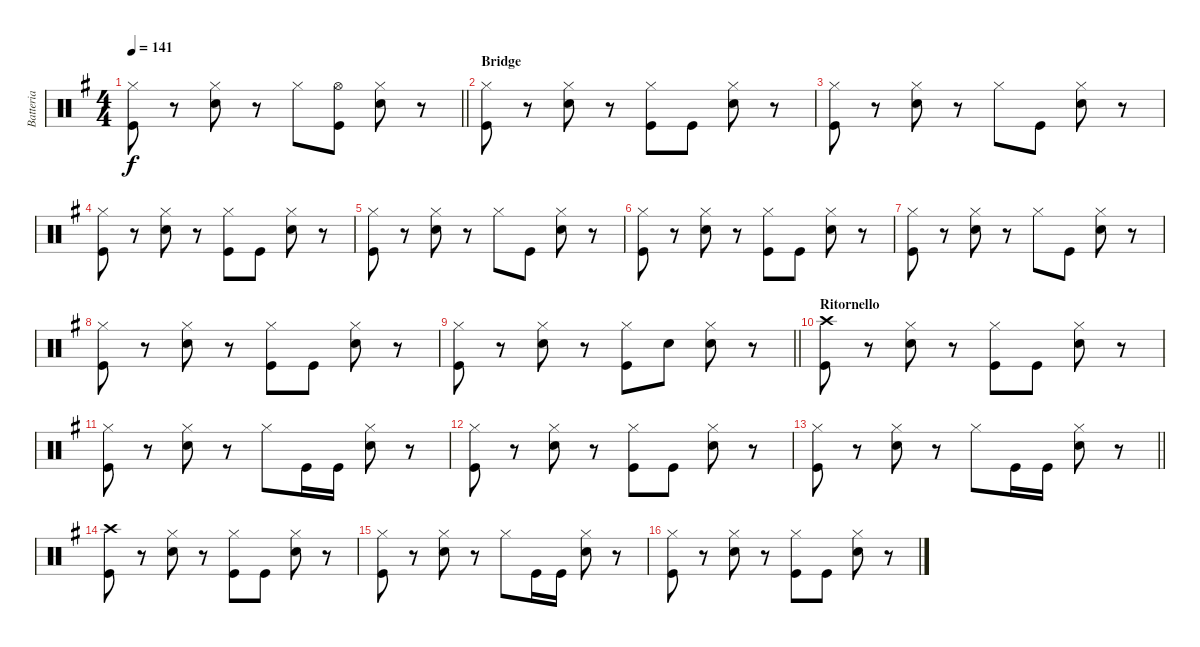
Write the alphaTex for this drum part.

\track ("Batteria" "Batteria") {instrument percussion}
\staff {score}
\articulation defaults
\ts (4 4)
\tempo 141
\clef neutral
\barLineRight lightlight
\ks eminor
("Hi-Hat (closed)" "Kick (hit)").8{dy f} r.8 ("Hi-Hat (closed)" "Electric Snare (hit)").8 r.8 "Hi-Hat (closed)".8 ("Hi-Hat (open)" "Kick (hit)").8 ("Hi-Hat (closed)" "Electric Snare (hit)").8 r.8 |
\section ("" "Bridge")
("Hi-Hat (closed)" "Kick (hit)").8 r.8 ("Hi-Hat (closed)" "Electric Snare (hit)").8 r.8 ("Hi-Hat (closed)" "Kick (hit)").8 "Kick (hit)".8 ("Hi-Hat (closed)" "Electric Snare (hit)").8 r.8 |
("Hi-Hat (closed)" "Kick (hit)").8 r.8 ("Hi-Hat (closed)" "Electric Snare (hit)").8 r.8 "Hi-Hat (closed)".8 "Kick (hit)".8 ("Hi-Hat (closed)" "Electric Snare (hit)").8 r.8 |
("Hi-Hat (closed)" "Kick (hit)").8 r.8 ("Hi-Hat (closed)" "Electric Snare (hit)").8 r.8 ("Hi-Hat (closed)" "Kick (hit)").8 "Kick (hit)".8 ("Hi-Hat (closed)" "Electric Snare (hit)").8 r.8 |
("Hi-Hat (closed)" "Kick (hit)").8 r.8 ("Hi-Hat (closed)" "Electric Snare (hit)").8 r.8 "Hi-Hat (closed)".8 "Kick (hit)".8 ("Hi-Hat (closed)" "Electric Snare (hit)").8 r.8 |
("Hi-Hat (closed)" "Kick (hit)").8 r.8 ("Hi-Hat (closed)" "Electric Snare (hit)").8 r.8 ("Hi-Hat (closed)" "Kick (hit)").8 "Kick (hit)".8 ("Hi-Hat (closed)" "Electric Snare (hit)").8 r.8 |
("Hi-Hat (closed)" "Kick (hit)").8 r.8 ("Hi-Hat (closed)" "Electric Snare (hit)").8 r.8 "Hi-Hat (closed)".8 "Kick (hit)".8 ("Hi-Hat (closed)" "Electric Snare (hit)").8 r.8 |
("Hi-Hat (closed)" "Kick (hit)").8 r.8 ("Hi-Hat (closed)" "Electric Snare (hit)").8 r.8 ("Hi-Hat (closed)" "Kick (hit)").8 "Kick (hit)".8 ("Hi-Hat (closed)" "Electric Snare (hit)").8 r.8 |
\barLineRight lightlight
("Hi-Hat (closed)" "Kick (hit)").8 r.8 ("Hi-Hat (closed)" "Electric Snare (hit)").8 r.8 ("Hi-Hat (closed)" "Kick (hit)").8 "Electric Snare (hit)".8 ("Hi-Hat (closed)" "Electric Snare (hit)").8 r.8 |
\section ("" "Ritornello")
("Crash high (hit)" "Kick (hit)").8 r.8 ("Hi-Hat (closed)" "Electric Snare (hit)").8 r.8 ("Hi-Hat (closed)" "Kick (hit)").8 "Kick (hit)".8 ("Hi-Hat (closed)" "Electric Snare (hit)").8 r.8 |
("Hi-Hat (closed)" "Kick (hit)").8 r.8 ("Hi-Hat (closed)" "Electric Snare (hit)").8 r.8 "Hi-Hat (closed)".8 "Kick (hit)".16 "Kick (hit)".16 ("Hi-Hat (closed)" "Electric Snare (hit)").8 r.8 |
("Hi-Hat (closed)" "Kick (hit)").8 r.8 ("Hi-Hat (closed)" "Electric Snare (hit)").8 r.8 ("Hi-Hat (closed)" "Kick (hit)").8 "Kick (hit)".8 ("Hi-Hat (closed)" "Electric Snare (hit)").8 r.8 |
\barLineRight lightlight
("Hi-Hat (closed)" "Kick (hit)").8 r.8 ("Hi-Hat (closed)" "Electric Snare (hit)").8 r.8 "Hi-Hat (closed)".8 "Kick (hit)".16 "Kick (hit)".16 ("Hi-Hat (closed)" "Electric Snare (hit)").8 r.8 |
("Crash high (hit)" "Kick (hit)").8 r.8 ("Hi-Hat (closed)" "Electric Snare (hit)").8 r.8 ("Hi-Hat (closed)" "Kick (hit)").8 "Kick (hit)".8 ("Hi-Hat (closed)" "Electric Snare (hit)").8 r.8 |
("Hi-Hat (closed)" "Kick (hit)").8 r.8 ("Hi-Hat (closed)" "Electric Snare (hit)").8 r.8 "Hi-Hat (closed)".8 "Kick (hit)".16 "Kick (hit)".16 ("Hi-Hat (closed)" "Electric Snare (hit)").8 r.8 |
("Hi-Hat (closed)" "Kick (hit)").8 r.8 ("Hi-Hat (closed)" "Electric Snare (hit)").8 r.8 ("Hi-Hat (closed)" "Kick (hit)").8 "Kick (hit)".8 ("Hi-Hat (closed)" "Electric Snare (hit)").8 r.8
